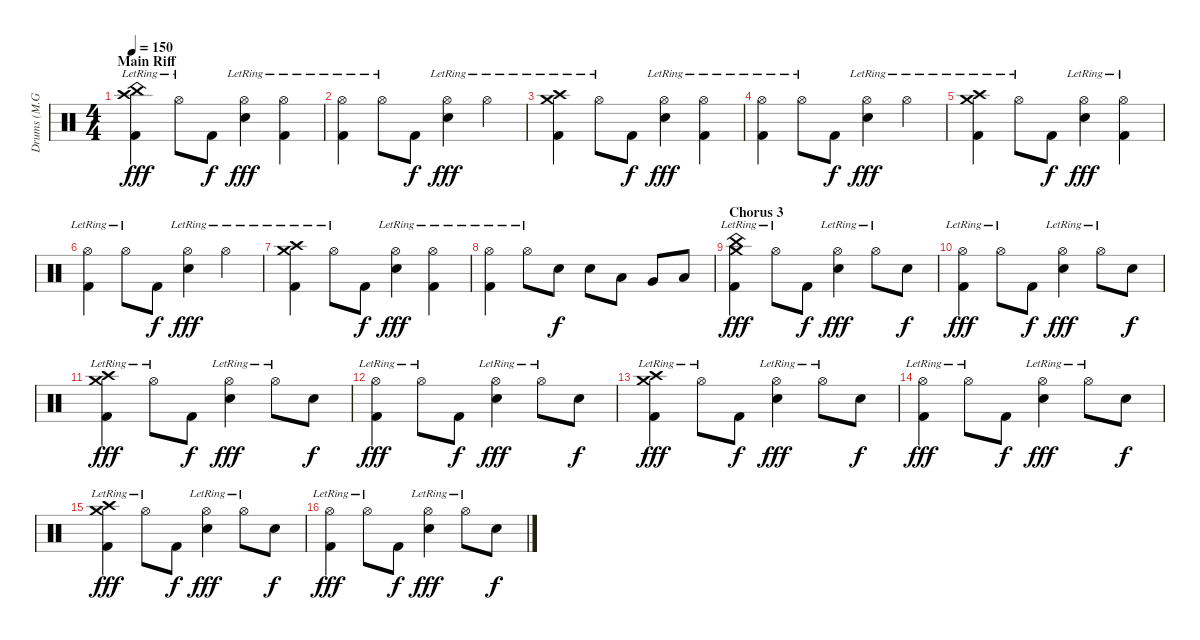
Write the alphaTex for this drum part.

\track ("Drums (M.Großkopf)" "Drums (M.G") {instrument percussion}
\staff {score}
\articulation defaults
\ts (4 4)
\section ("" "Main Riff")
\tempo 150
\clef neutral
\ks c
("Crash high (hit)"{lr} "Kick (hit) 2" "China (hit)"{lr}).4{dy fff} "Hi-Hat (open)"{lr}.8 "Kick (hit) 2".8{dy f} ("Hi-Hat (open)"{lr} "Electric Snare (hit)").4{dy fff} ("Hi-Hat (open)"{lr} "Kick (hit) 2").4 |
("Hi-Hat (open)"{lr} "Kick (hit) 2").4 "Hi-Hat (open)"{lr}.8 "Kick (hit) 2".8{dy f} ("Hi-Hat (open)"{lr} "Electric Snare (hit)").4{dy fff} "Hi-Hat (open)"{lr}.4 |
("Crash high (hit)"{lr} "Crash medium (hit)"{lr} "Kick (hit) 2").4 "Hi-Hat (open)"{lr}.8 "Kick (hit) 2".8{dy f} ("Hi-Hat (open)"{lr} "Electric Snare (hit)").4{dy fff} ("Hi-Hat (open)"{lr} "Kick (hit) 2").4 |
("Hi-Hat (open)"{lr} "Kick (hit) 2").4 "Hi-Hat (open)"{lr}.8 "Kick (hit) 2".8{dy f} ("Hi-Hat (open)"{lr} "Electric Snare (hit)").4{dy fff} "Hi-Hat (open)"{lr}.4 |
("Crash high (hit)"{lr} "Crash medium (hit)"{lr} "Kick (hit) 2").4 "Hi-Hat (open)"{lr}.8 "Kick (hit) 2".8{dy f} ("Hi-Hat (open)"{lr} "Electric Snare (hit)").4{dy fff} ("Hi-Hat (open)"{lr} "Kick (hit) 2").4 |
("Hi-Hat (open)"{lr} "Kick (hit) 2").4 "Hi-Hat (open)"{lr}.8 "Kick (hit) 2".8{dy f} ("Hi-Hat (open)"{lr} "Electric Snare (hit)").4{dy fff} "Hi-Hat (open)"{lr}.4 |
("Crash high (hit)"{lr} "Crash medium (hit)"{lr} "Kick (hit) 2").4 "Hi-Hat (open)"{lr}.8 "Kick (hit) 2".8{dy f} ("Hi-Hat (open)"{lr} "Electric Snare (hit)").4{dy fff} ("Hi-Hat (open)"{lr} "Kick (hit) 2").4 |
("Hi-Hat (open)"{lr} "Kick (hit) 2").4 "Hi-Hat (open)"{lr}.8 "Electric Snare (hit)".8{dy f} "Electric Snare (hit)".8 "Low Tom (hit)".8 "Very Low Tom (hit)".8 "Low Floor Tom (hit)".8 |
\section ("" "Chorus 3")
("Crash medium (hit)"{lr} "Kick (hit) 2" "China (hit)"{lr}).4{dy fff} "Hi-Hat (open)"{lr}.8 "Kick (hit) 2".8{dy f} ("Hi-Hat (open)"{lr} "Electric Snare (hit)").4{dy fff} "Hi-Hat (open)"{lr}.8 "Electric Snare (hit)".8{dy f} |
("Hi-Hat (open)"{lr} "Kick (hit) 2").4{dy fff} "Hi-Hat (open)"{lr}.8 "Kick (hit) 2".8{dy f} ("Hi-Hat (open)"{lr} "Electric Snare (hit)").4{dy fff} "Hi-Hat (open)"{lr}.8 "Electric Snare (hit)".8{dy f} |
("Crash high (hit)"{lr} "Crash medium (hit)"{lr} "Kick (hit) 2").4{dy fff} "Hi-Hat (open)"{lr}.8 "Kick (hit) 2".8{dy f} ("Hi-Hat (open)"{lr} "Electric Snare (hit)").4{dy fff} "Hi-Hat (open)"{lr}.8 "Electric Snare (hit)".8{dy f} |
("Hi-Hat (open)"{lr} "Kick (hit) 2").4{dy fff} "Hi-Hat (open)"{lr}.8 "Kick (hit) 2".8{dy f} ("Hi-Hat (open)"{lr} "Electric Snare (hit)").4{dy fff} "Hi-Hat (open)"{lr}.8 "Electric Snare (hit)".8{dy f} |
("Crash high (hit)"{lr} "Crash medium (hit)"{lr} "Kick (hit) 2").4{dy fff} "Hi-Hat (open)"{lr}.8 "Kick (hit) 2".8{dy f} ("Hi-Hat (open)"{lr} "Electric Snare (hit)").4{dy fff} "Hi-Hat (open)"{lr}.8 "Electric Snare (hit)".8{dy f} |
("Hi-Hat (open)"{lr} "Kick (hit) 2").4{dy fff} "Hi-Hat (open)"{lr}.8 "Kick (hit) 2".8{dy f} ("Hi-Hat (open)"{lr} "Electric Snare (hit)").4{dy fff} "Hi-Hat (open)"{lr}.8 "Electric Snare (hit)".8{dy f} |
("Crash high (hit)"{lr} "Crash medium (hit)"{lr} "Kick (hit) 2").4{dy fff} "Hi-Hat (open)"{lr}.8 "Kick (hit) 2".8{dy f} ("Hi-Hat (open)"{lr} "Electric Snare (hit)").4{dy fff} "Hi-Hat (open)"{lr}.8 "Electric Snare (hit)".8{dy f} |
("Hi-Hat (open)"{lr} "Kick (hit) 2").4{dy fff} "Hi-Hat (open)"{lr}.8 "Kick (hit) 2".8{dy f} ("Hi-Hat (open)"{lr} "Electric Snare (hit)").4{dy fff} "Hi-Hat (open)"{lr}.8 "Electric Snare (hit)".8{dy f}
